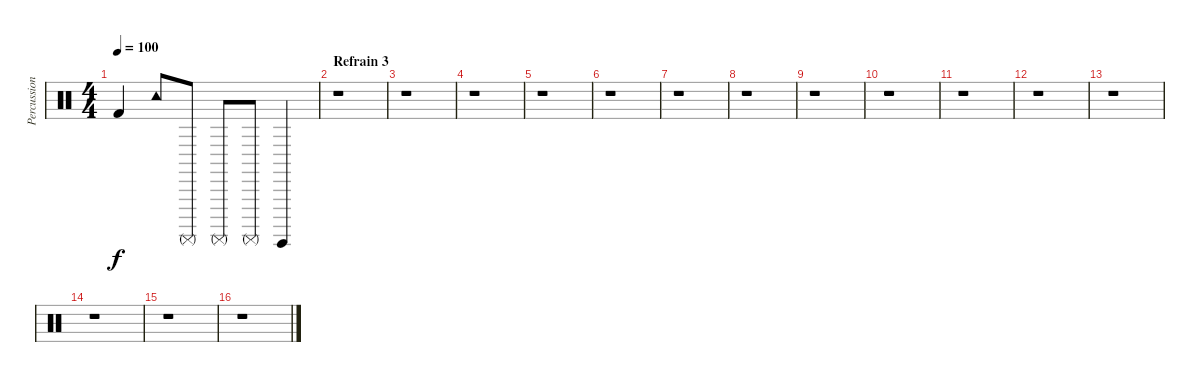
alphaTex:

\track ("Percussions" "Percussion") {instrument percussion}
\staff {score}
\articulation defaults
\ts (4 4)
\tempo 100
\clef neutral
\ks c "Kick (hit) 2".4{dy f} "Tambourine (hit)".8 "Surdo (mute)".8 "Surdo (mute)".8 "Surdo (mute)".8 "Surdo (hit)".4
|
\section ("" "Refrain 3")
r.1 |
r.1 |
r.1 |
r.1 |
r.1 |
r.1 |
r.1 |
r.1 |
r.1 |
r.1 |
r.1 |
r.1 |
r.1 |
r.1 |
r.1
